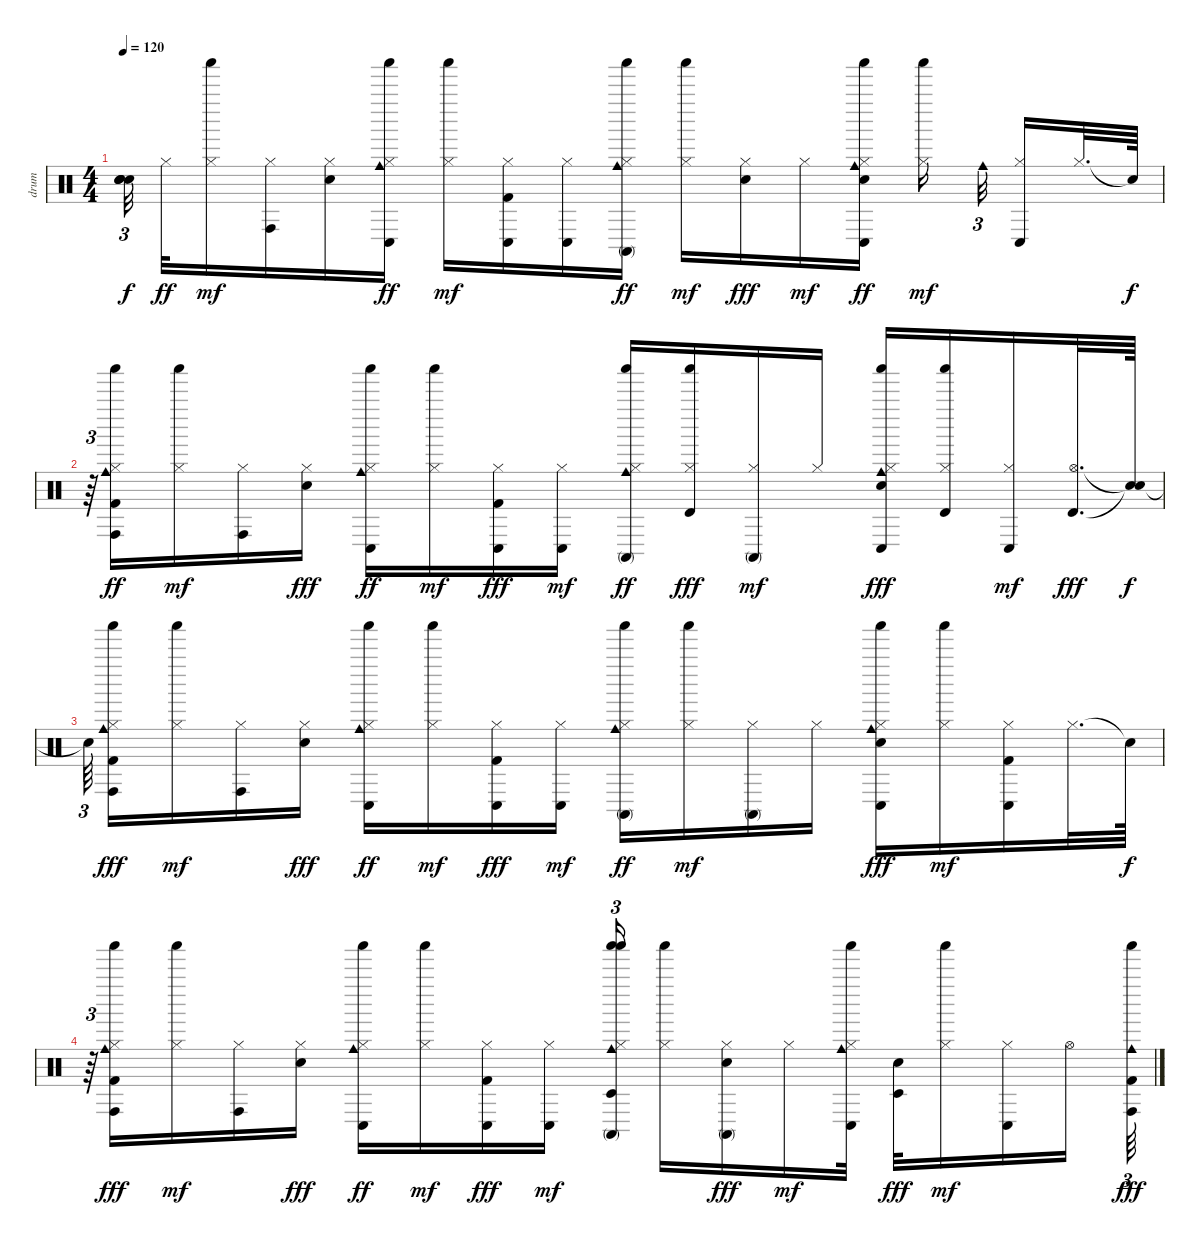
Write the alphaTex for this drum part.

\track ("drum" "drum") {instrument percussion}
\staff {score}
\articulation defaults
\ts (4 4)
\tempo 120
\clef neutral
\ks c
("Snare (hit)"{t} "Snare (hit)"{t} "Snare (hit)"{t} "Snare (hit)"{t}).32{tu (3 2) dy f beam splitsecondary} "Hi-Hat (closed)".32{dy ff} ("Shaker (hit)" "Hi-Hat (closed)").16{dy mf} ("Conga high (hit)" "Hi-Hat (closed)").16 ("Electric Snare (hit)" "Hi-Hat (closed)").16 ("Conga low (hit)" "Cowbell medium (hit)" "Shaker (hit)" "Hi-Hat (closed)").16{dy ff} ("Shaker (hit)" "Hi-Hat (closed)").16{dy mf} ("Conga low (hit)" "Kick (hit) 2" "Hi-Hat (closed)").16 ("Conga low (hit)" "Hi-Hat (closed)").16 ("Conga high (mute)" "Cowbell medium (hit)" "Shaker (hit)" "Hi-Hat (closed)").16{dy ff} ("Shaker (hit)" "Hi-Hat (closed)").16{dy mf} ("Hi-Hat (closed)" "Electric Snare (hit)").16{dy fff} "Hi-Hat (closed)".16{dy mf} ("Conga low (hit)" "Shaker (hit)" "Cowbell medium (hit)" "Electric Snare (hit)" "Hi-Hat (closed)").16{dy ff} ("Shaker (hit)" "Hi-Hat (closed)").16{dy mf beam splitsecondary} "Cowbell medium (hit)".32{tu (3 2) beam splitsecondary} ("Conga low (hit)" "Hi-Hat (closed)").16 "Hi-Hat (closed)".32{d} "Snare (hit)"{t}.64{dy f} |
r.64{tu (3 2)} ("Conga high (hit)" "Shaker (hit)" "Cowbell medium (hit)" "Kick (hit) 2" "Hi-Hat (closed)").16{dy ff} ("Shaker (hit)" "Hi-Hat (closed)").16{dy mf} ("Conga high (hit)" "Hi-Hat (closed)").16 ("Hi-Hat (closed)" "Electric Snare (hit)").16{dy fff} ("Conga low (hit)" "Cowbell medium (hit)" "Shaker (hit)" "Hi-Hat (closed)").16{dy ff} ("Shaker (hit)" "Hi-Hat (closed)").16{dy mf} ("Conga low (hit)" "Hi-Hat (closed)" "Kick (hit) 2").16{dy fff} ("Conga low (hit)" "Hi-Hat (closed)").16{dy mf} ("Conga high (mute)" "Shaker (hit)" "Cowbell medium (hit)" "Hi-Hat (closed)").16{dy ff} ("Shaker (hit)" "Hi-Hat (closed)" "Timbale high (hit)").16{dy fff} ("Conga high (mute)" "Hi-Hat (closed)").16{dy mf} "Hi-Hat (closed)".16 ("Conga low (hit)" "Cowbell medium (hit)" "Shaker (hit)" "Hi-Hat (closed)" "Electric Snare (hit)").16{dy fff} ("Shaker (hit)" "Hi-Hat (closed)" "Timbale high (hit)").16 ("Conga low (hit)" "Hi-Hat (closed)").16{dy mf} ("Hi-Hat (open)" "Timbale high (hit)").32{d dy fff} ("Snare (hit)"{t} "Snare (hit)"{t}).64{dy f} |
"Snare (hit)"{t}.64{tu (3 2) beam splitsecondary} ("Conga high (hit)" "Shaker (hit)" "Cowbell medium (hit)" "Hi-Hat (closed)" "Kick (hit) 2").16{dy fff} ("Shaker (hit)" "Hi-Hat (closed)").16{dy mf} ("Conga high (hit)" "Hi-Hat (closed)").16 ("Hi-Hat (closed)" "Electric Snare (hit)").16{dy fff} ("Conga low (hit)" "Shaker (hit)" "Cowbell medium (hit)" "Hi-Hat (closed)").16{dy ff} ("Shaker (hit)" "Hi-Hat (closed)").16{dy mf} ("Conga low (hit)" "Hi-Hat (closed)" "Kick (hit) 2").16{dy fff} ("Conga low (hit)" "Hi-Hat (closed)").16{dy mf} ("Conga high (mute)" "Cowbell medium (hit)" "Shaker (hit)" "Hi-Hat (closed)").16{dy ff} ("Shaker (hit)" "Hi-Hat (closed)").16{dy mf} ("Conga high (mute)" "Hi-Hat (closed)").16 "Hi-Hat (closed)".16 ("Conga low (hit)" "Cowbell medium (hit)" "Shaker (hit)" "Hi-Hat (closed)" "Electric Snare (hit)").16{dy fff} ("Shaker (hit)" "Hi-Hat (closed)").16{dy mf} ("Conga low (hit)" "Kick (hit) 2" "Hi-Hat (closed)").16 "Hi-Hat (closed)".32{d} "Snare (hit)"{t}.64{dy f} |
r.64{tu (3 2)} ("Conga high (hit)" "Cowbell medium (hit)" "Shaker (hit)" "Hi-Hat (closed)" "Kick (hit) 2").16{dy fff} ("Shaker (hit)" "Hi-Hat (closed)").16{dy mf} ("Conga high (hit)" "Hi-Hat (closed)").16 ("Hi-Hat (closed)" "Electric Snare (hit)").16{dy fff} ("Conga low (hit)" "Cowbell medium (hit)" "Shaker (hit)" "Hi-Hat (closed)").16{dy ff} ("Shaker (hit)" "Hi-Hat (closed)").16{dy mf} ("Conga low (hit)" "Hi-Hat (closed)" "Kick (hit) 2").16{dy fff} ("Conga low (hit)" "Hi-Hat (closed)").16{dy mf} ("Conga high (mute)" "Shaker (hit)" "Cowbell medium (hit)" "Hi-Hat (closed)" "Timbale low (hit)" "Shaker (hit)").16{tu (3 2) beam splitsecondary} ("Shaker (hit)" "Hi-Hat (closed)").16 ("Conga high (mute)" "Hi-Hat (closed)" "Electric Snare (hit)").16{dy fff} "Hi-Hat (closed)".16{dy mf} ("Conga low (hit)" "Hi-Hat (closed)" "Shaker (hit)" "Cowbell medium (hit)").32 ("Electric Snare (hit)" "Timbale low (hit)").32{dy fff} ("Shaker (hit)" "Hi-Hat (closed)").16{dy mf} ("Conga low (hit)" "Hi-Hat (closed)").16 "Hi-Hat (open)".16{beam splitsecondary} ("Conga high (hit)" "Shaker (hit)" "Cowbell medium (hit)" "Kick (hit) 2").64{tu (3 2) dy fff}
